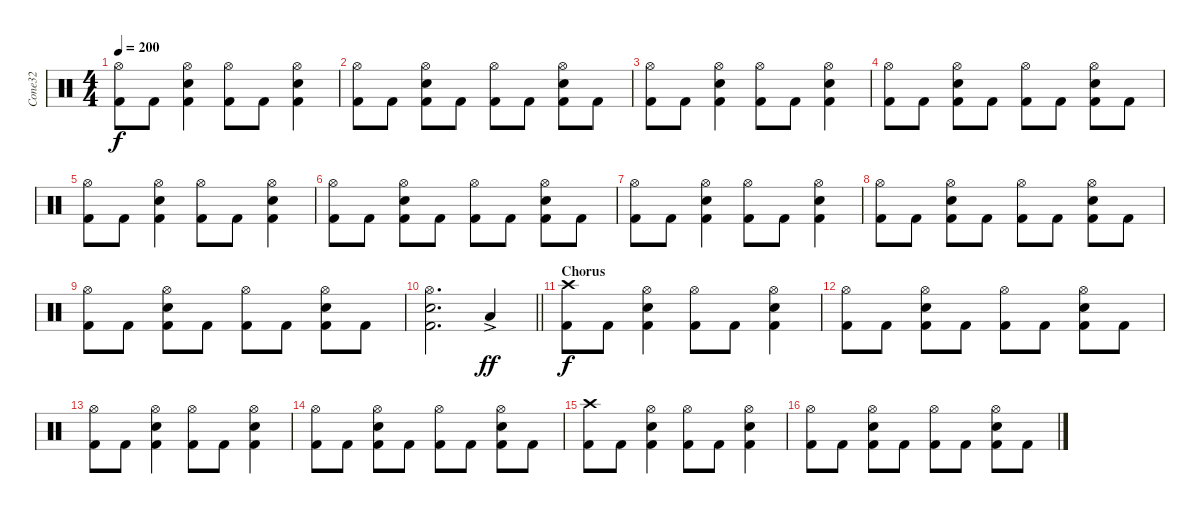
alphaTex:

\track ("Cone32" "Cone32") {instrument percussion}
\staff {score}
\articulation defaults
\ts (4 4)
\tempo 200
\clef neutral
\ks c
("Hi-Hat (open)" "Kick (hit) 2").8{dy f} "Kick (hit) 2".8 ("Hi-Hat (open)" "Snare (hit) 2" "Kick (hit) 2").4 ("Hi-Hat (open)" "Kick (hit) 2").8 "Kick (hit) 2".8 ("Hi-Hat (open)" "Snare (hit) 2" "Kick (hit) 2").4 |
("Hi-Hat (open)" "Kick (hit) 2").8 "Kick (hit) 2".8 ("Hi-Hat (open)" "Snare (hit) 2" "Kick (hit) 2").8 "Kick (hit) 2".8 ("Hi-Hat (open)" "Kick (hit) 2").8 "Kick (hit) 2".8 ("Hi-Hat (open)" "Snare (hit) 2" "Kick (hit) 2").8 "Kick (hit) 2".8 |
("Hi-Hat (open)" "Kick (hit) 2").8 "Kick (hit) 2".8 ("Hi-Hat (open)" "Snare (hit) 2" "Kick (hit) 2").4 ("Hi-Hat (open)" "Kick (hit) 2").8 "Kick (hit) 2".8 ("Hi-Hat (open)" "Snare (hit) 2" "Kick (hit) 2").4 |
("Hi-Hat (open)" "Kick (hit) 2").8 "Kick (hit) 2".8 ("Hi-Hat (open)" "Snare (hit) 2" "Kick (hit) 2").8 "Kick (hit) 2".8 ("Hi-Hat (open)" "Kick (hit) 2").8 "Kick (hit) 2".8 ("Hi-Hat (open)" "Snare (hit) 2" "Kick (hit) 2").8 "Kick (hit) 2".8 |
("Hi-Hat (open)" "Kick (hit) 2").8 "Kick (hit) 2".8 ("Hi-Hat (open)" "Snare (hit) 2" "Kick (hit) 2").4 ("Hi-Hat (open)" "Kick (hit) 2").8 "Kick (hit) 2".8 ("Hi-Hat (open)" "Snare (hit) 2" "Kick (hit) 2").4 |
("Hi-Hat (open)" "Kick (hit) 2").8 "Kick (hit) 2".8 ("Hi-Hat (open)" "Snare (hit) 2" "Kick (hit) 2").8 "Kick (hit) 2".8 ("Hi-Hat (open)" "Kick (hit) 2").8 "Kick (hit) 2".8 ("Hi-Hat (open)" "Snare (hit) 2" "Kick (hit) 2").8 "Kick (hit) 2".8 |
("Hi-Hat (open)" "Kick (hit) 2").8 "Kick (hit) 2".8 ("Hi-Hat (open)" "Snare (hit) 2" "Kick (hit) 2").4 ("Hi-Hat (open)" "Kick (hit) 2").8 "Kick (hit) 2".8 ("Hi-Hat (open)" "Snare (hit) 2" "Kick (hit) 2").4 |
("Hi-Hat (open)" "Kick (hit) 2").8 "Kick (hit) 2".8 ("Hi-Hat (open)" "Snare (hit) 2" "Kick (hit) 2").8 "Kick (hit) 2".8 ("Hi-Hat (open)" "Kick (hit) 2").8 "Kick (hit) 2".8 ("Hi-Hat (open)" "Snare (hit) 2" "Kick (hit) 2").8 "Kick (hit) 2".8 |
("Hi-Hat (open)" "Kick (hit) 2").8 "Kick (hit) 2".8 ("Hi-Hat (open)" "Snare (hit) 2" "Kick (hit) 2").8 "Kick (hit) 2".8 ("Hi-Hat (open)" "Kick (hit) 2").8 "Kick (hit) 2".8 ("Hi-Hat (open)" "Snare (hit) 2" "Kick (hit) 2").8 "Kick (hit) 2".8 |
\barLineRight lightlight
("Hi-Hat (open)" "Snare (hit) 2" "Kick (hit) 2").2{d} "Low Floor Tom (hit)"{ac}.4{dy ff} |
\section ("" "Chorus")
("Crash high (hit)" "Kick (hit) 2").8{dy f} "Kick (hit) 2".8 ("Hi-Hat (open)" "Snare (hit) 2" "Kick (hit) 2").4 ("Hi-Hat (open)" "Kick (hit) 2").8 "Kick (hit) 2".8 ("Hi-Hat (open)" "Snare (hit) 2" "Kick (hit) 2").4 |
("Hi-Hat (open)" "Kick (hit) 2").8 "Kick (hit) 2".8 ("Hi-Hat (open)" "Snare (hit) 2" "Kick (hit) 2").8 "Kick (hit) 2".8 ("Hi-Hat (open)" "Kick (hit) 2").8 "Kick (hit) 2".8 ("Hi-Hat (open)" "Snare (hit) 2" "Kick (hit) 2").8 "Kick (hit) 2".8 |
("Hi-Hat (open)" "Kick (hit) 2").8 "Kick (hit) 2".8 ("Hi-Hat (open)" "Snare (hit) 2" "Kick (hit) 2").4 ("Hi-Hat (open)" "Kick (hit) 2").8 "Kick (hit) 2".8 ("Hi-Hat (open)" "Snare (hit) 2" "Kick (hit) 2").4 |
("Hi-Hat (open)" "Kick (hit) 2").8 "Kick (hit) 2".8 ("Hi-Hat (open)" "Snare (hit) 2" "Kick (hit) 2").8 "Kick (hit) 2".8 ("Hi-Hat (open)" "Kick (hit) 2").8 "Kick (hit) 2".8 ("Hi-Hat (open)" "Snare (hit) 2" "Kick (hit) 2").8 "Kick (hit) 2".8 |
("Crash high (hit)" "Kick (hit) 2").8 "Kick (hit) 2".8 ("Hi-Hat (open)" "Snare (hit) 2" "Kick (hit) 2").4 ("Hi-Hat (open)" "Kick (hit) 2").8 "Kick (hit) 2".8 ("Hi-Hat (open)" "Snare (hit) 2" "Kick (hit) 2").4 |
("Hi-Hat (open)" "Kick (hit) 2").8 "Kick (hit) 2".8 ("Hi-Hat (open)" "Snare (hit) 2" "Kick (hit) 2").8 "Kick (hit) 2".8 ("Hi-Hat (open)" "Kick (hit) 2").8 "Kick (hit) 2".8 ("Hi-Hat (open)" "Snare (hit) 2" "Kick (hit) 2").8 "Kick (hit) 2".8
